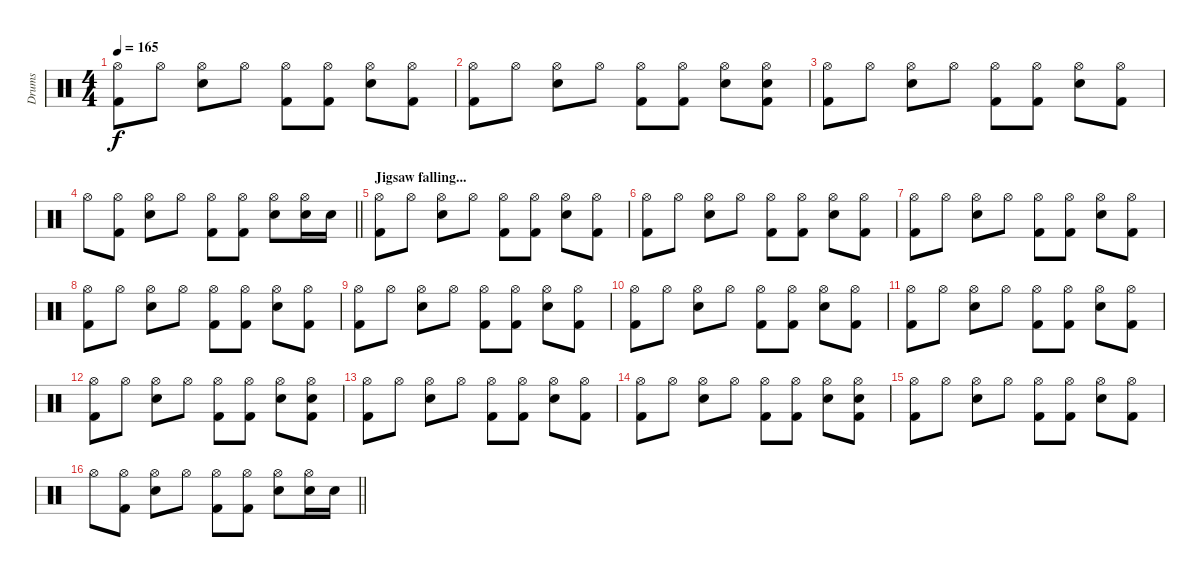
\track ("Drums" "Drums") {instrument percussion}
\staff {score}
\articulation defaults
\ts (4 4)
\tempo 165
\clef neutral
\ks c
("Hi-Hat (open)" "Kick (hit) 2").8{dy f} "Hi-Hat (open)".8 ("Hi-Hat (open)" "Electric Snare (hit)").8 "Hi-Hat (open)".8 ("Hi-Hat (open)" "Kick (hit) 2").8 ("Hi-Hat (open)" "Kick (hit) 2").8 ("Hi-Hat (open)" "Electric Snare (hit)").8 ("Hi-Hat (open)" "Kick (hit) 2").8 |
("Hi-Hat (open)" "Kick (hit) 2").8 "Hi-Hat (open)".8 ("Hi-Hat (open)" "Electric Snare (hit)").8 "Hi-Hat (open)".8 ("Hi-Hat (open)" "Kick (hit) 2").8 ("Hi-Hat (open)" "Kick (hit) 2").8 ("Hi-Hat (open)" "Electric Snare (hit)").8 ("Hi-Hat (open)" "Electric Snare (hit)" "Kick (hit) 2").8 |
("Hi-Hat (open)" "Kick (hit) 2").8 "Hi-Hat (open)".8 ("Hi-Hat (open)" "Electric Snare (hit)").8 "Hi-Hat (open)".8 ("Hi-Hat (open)" "Kick (hit) 2").8 ("Hi-Hat (open)" "Kick (hit) 2").8 ("Hi-Hat (open)" "Electric Snare (hit)").8 ("Hi-Hat (open)" "Kick (hit) 2").8 |
\barLineRight lightlight "Hi-Hat (open)".8
("Hi-Hat (open)" "Kick (hit) 2").8 ("Hi-Hat (open)" "Electric Snare (hit)").8 "Hi-Hat (open)".8 ("Hi-Hat (open)" "Kick (hit) 2").8 ("Hi-Hat (open)" "Kick (hit) 2").8 ("Hi-Hat (open)" "Electric Snare (hit)").8 ("Hi-Hat (open)" "Electric Snare (hit)").16 "Electric Snare (hit)".16 |
\section ("" "Jigsaw falling...")
("Hi-Hat (open)" "Kick (hit) 2").8 "Hi-Hat (open)".8 ("Hi-Hat (open)" "Electric Snare (hit)").8 "Hi-Hat (open)".8 ("Hi-Hat (open)" "Kick (hit) 2").8 ("Hi-Hat (open)" "Kick (hit) 2").8 ("Hi-Hat (open)" "Electric Snare (hit)").8 ("Hi-Hat (open)" "Kick (hit) 2").8 |
("Hi-Hat (open)" "Kick (hit) 2").8 "Hi-Hat (open)".8 ("Hi-Hat (open)" "Electric Snare (hit)").8 "Hi-Hat (open)".8 ("Hi-Hat (open)" "Kick (hit) 2").8 ("Hi-Hat (open)" "Kick (hit) 2").8 ("Hi-Hat (open)" "Electric Snare (hit)").8 ("Hi-Hat (open)" "Kick (hit) 2").8 |
("Hi-Hat (open)" "Kick (hit) 2").8 "Hi-Hat (open)".8 ("Hi-Hat (open)" "Electric Snare (hit)").8 "Hi-Hat (open)".8 ("Hi-Hat (open)" "Kick (hit) 2").8 ("Hi-Hat (open)" "Kick (hit) 2").8 ("Hi-Hat (open)" "Electric Snare (hit)").8 ("Hi-Hat (open)" "Kick (hit) 2").8 |
("Hi-Hat (open)" "Kick (hit) 2").8 "Hi-Hat (open)".8 ("Hi-Hat (open)" "Electric Snare (hit)").8 "Hi-Hat (open)".8 ("Hi-Hat (open)" "Kick (hit) 2").8 ("Hi-Hat (open)" "Kick (hit) 2").8 ("Hi-Hat (open)" "Electric Snare (hit)").8 ("Hi-Hat (open)" "Kick (hit) 2").8 |
("Hi-Hat (open)" "Kick (hit) 2").8 "Hi-Hat (open)".8 ("Hi-Hat (open)" "Electric Snare (hit)").8 "Hi-Hat (open)".8 ("Hi-Hat (open)" "Kick (hit) 2").8 ("Hi-Hat (open)" "Kick (hit) 2").8 ("Hi-Hat (open)" "Electric Snare (hit)").8 ("Hi-Hat (open)" "Kick (hit) 2").8 |
("Hi-Hat (open)" "Kick (hit) 2").8 "Hi-Hat (open)".8 ("Hi-Hat (open)" "Electric Snare (hit)").8 "Hi-Hat (open)".8 ("Hi-Hat (open)" "Kick (hit) 2").8 ("Hi-Hat (open)" "Kick (hit) 2").8 ("Hi-Hat (open)" "Electric Snare (hit)").8 ("Hi-Hat (open)" "Kick (hit) 2").8 |
("Hi-Hat (open)" "Kick (hit) 2").8 "Hi-Hat (open)".8 ("Hi-Hat (open)" "Electric Snare (hit)").8 "Hi-Hat (open)".8 ("Hi-Hat (open)" "Kick (hit) 2").8 ("Hi-Hat (open)" "Kick (hit) 2").8 ("Hi-Hat (open)" "Electric Snare (hit)").8 ("Hi-Hat (open)" "Kick (hit) 2").8 |
("Hi-Hat (open)" "Kick (hit) 2").8 "Hi-Hat (open)".8 ("Hi-Hat (open)" "Electric Snare (hit)").8 "Hi-Hat (open)".8 ("Hi-Hat (open)" "Kick (hit) 2").8 ("Hi-Hat (open)" "Kick (hit) 2").8 ("Hi-Hat (open)" "Electric Snare (hit)").8 ("Hi-Hat (open)" "Electric Snare (hit)" "Kick (hit) 2").8 |
("Hi-Hat (open)" "Kick (hit) 2").8 "Hi-Hat (open)".8 ("Hi-Hat (open)" "Electric Snare (hit)").8 "Hi-Hat (open)".8 ("Hi-Hat (open)" "Kick (hit) 2").8 ("Hi-Hat (open)" "Kick (hit) 2").8 ("Hi-Hat (open)" "Electric Snare (hit)").8 ("Hi-Hat (open)" "Kick (hit) 2").8 |
("Hi-Hat (open)" "Kick (hit) 2").8 "Hi-Hat (open)".8 ("Hi-Hat (open)" "Electric Snare (hit)").8 "Hi-Hat (open)".8 ("Hi-Hat (open)" "Kick (hit) 2").8 ("Hi-Hat (open)" "Kick (hit) 2").8 ("Hi-Hat (open)" "Electric Snare (hit)").8 ("Hi-Hat (open)" "Electric Snare (hit)" "Kick (hit) 2").8 |
("Hi-Hat (open)" "Kick (hit) 2").8 "Hi-Hat (open)".8 ("Hi-Hat (open)" "Electric Snare (hit)").8 "Hi-Hat (open)".8 ("Hi-Hat (open)" "Kick (hit) 2").8 ("Hi-Hat (open)" "Kick (hit) 2").8 ("Hi-Hat (open)" "Electric Snare (hit)").8 ("Hi-Hat (open)" "Kick (hit) 2").8 |
\barLineRight lightlight "Hi-Hat (open)".8
("Hi-Hat (open)" "Kick (hit) 2").8 ("Hi-Hat (open)" "Electric Snare (hit)").8 "Hi-Hat (open)".8 ("Hi-Hat (open)" "Kick (hit) 2").8 ("Hi-Hat (open)" "Kick (hit) 2").8 ("Hi-Hat (open)" "Electric Snare (hit)").8 ("Hi-Hat (open)" "Electric Snare (hit)").16 "Electric Snare (hit)".16
